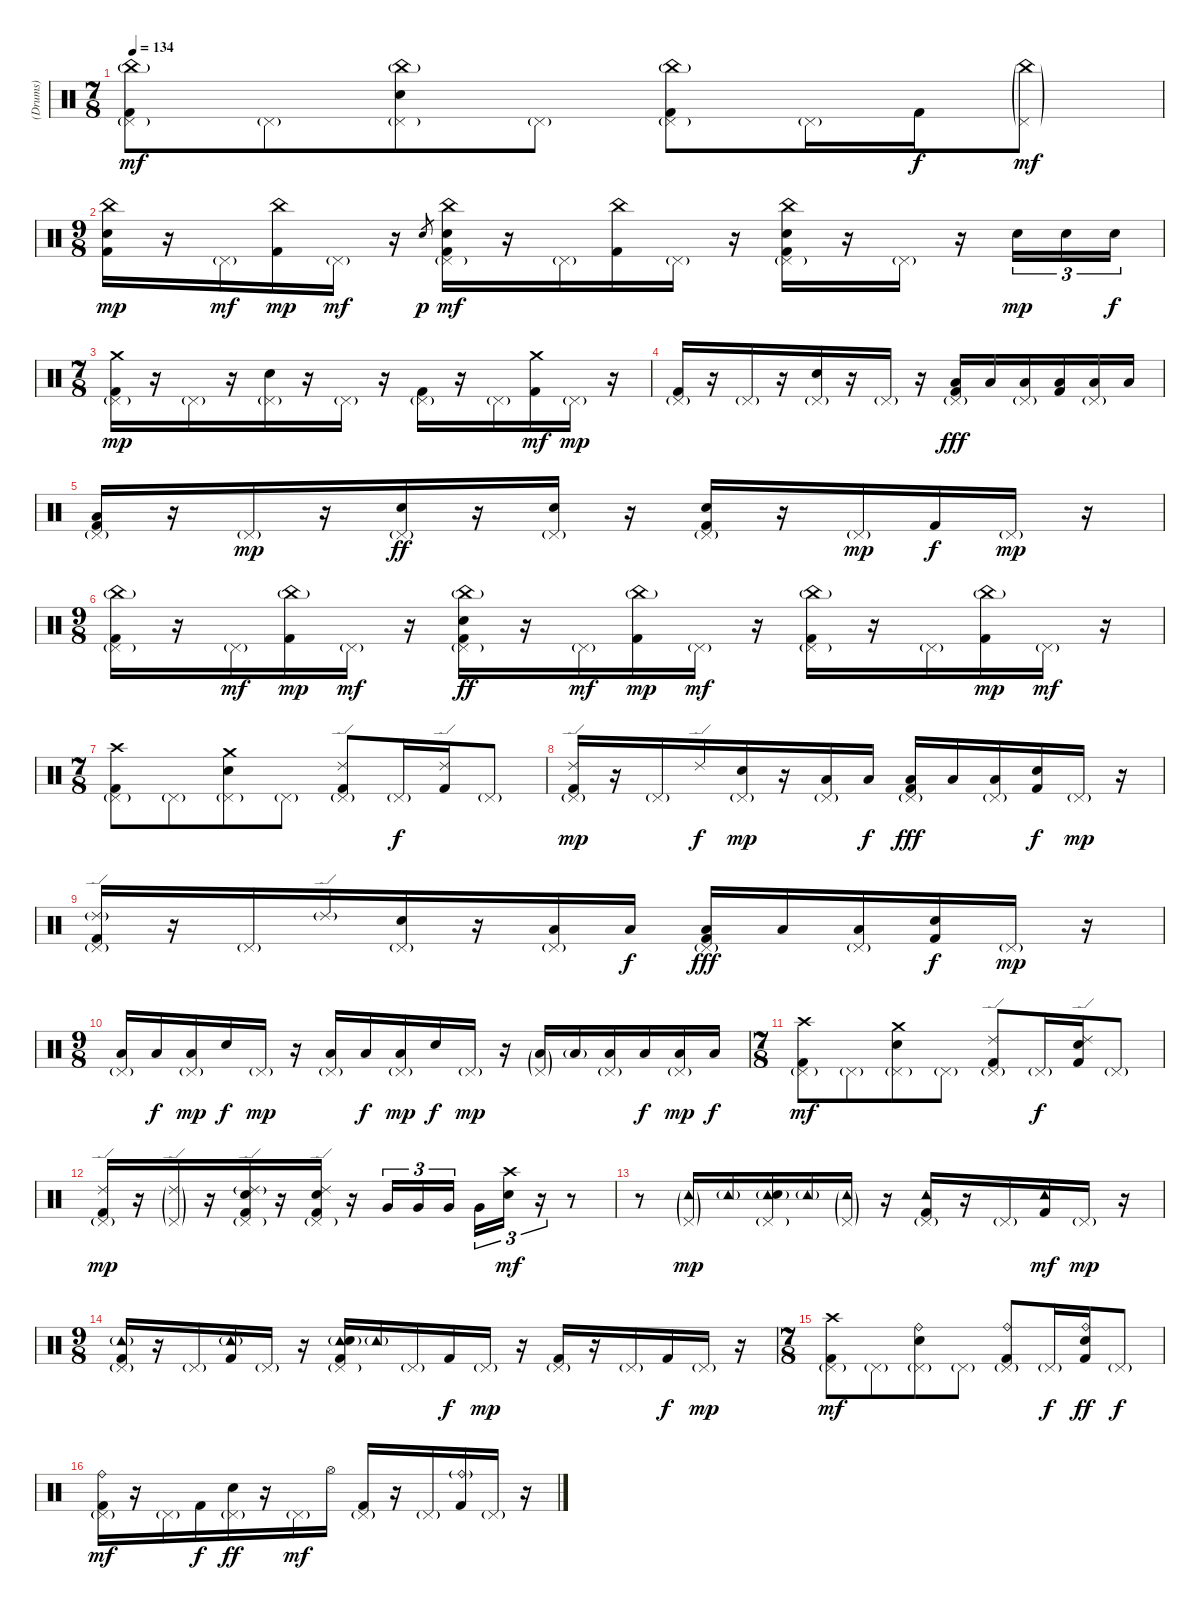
\track ("(Drums)" "(Drums)") {instrument percussion}
\staff {score}
\articulation defaults
\ts (7 8)
\tempo 134
\clef neutral
\ks c
("China (hit)"{g} "Pedal Hi-Hat (hit)"{g} "Kick (hit) 2").8{dy mf} "Pedal Hi-Hat (hit)"{g}.8 ("China (hit)"{g} "Pedal Hi-Hat (hit)"{g} "Electric Snare (hit)").8 "Pedal Hi-Hat (hit)"{g}.8 ("China (hit)"{g} "Pedal Hi-Hat (hit)"{g} "Kick (hit) 2").8 "Pedal Hi-Hat (hit)"{g}.16 "Kick (hit) 2".16{dy f} ("China (hit)"{g} "Pedal Hi-Hat (hit)"{g}).8{dy mf} |
\ts (9 8)
("China (hit)" "Electric Snare (hit)" "Kick (hit) 2").16{dy mp} r.16 "Pedal Hi-Hat (hit)"{g}.16{dy mf} ("China (hit)" "Kick (hit) 2").16{dy mp} "Pedal Hi-Hat (hit)"{g}.16{dy mf} r.16 "Electric Snare (hit)".8{gr dy p} ("China (hit)" "Pedal Hi-Hat (hit)"{g} "Electric Snare (hit)" "Kick (hit) 2").16{dy mf} r.16 "Pedal Hi-Hat (hit)"{g}.16 ("China (hit)" "Kick (hit) 2").16 "Pedal Hi-Hat (hit)"{g}.16 r.16 ("China (hit)" "Pedal Hi-Hat (hit)"{g} "Electric Snare (hit)" "Kick (hit) 2").16 r.16 "Pedal Hi-Hat (hit)"{g}.16 r.16 "Electric Snare (hit)".16{tu (3 2) dy mp} "Electric Snare (hit)".16{tu (3 2)} "Electric Snare (hit)".16{tu (3 2) dy f} |
\ts (7 8)
("Crash medium (hit)" "Pedal Hi-Hat (hit)"{g} "Kick (hit) 2").16{dy mp} r.16 "Pedal Hi-Hat (hit)"{g}.16 r.16 ("Pedal Hi-Hat (hit)"{g} "Electric Snare (hit)").16 r.16 "Pedal Hi-Hat (hit)"{g}.16 r.16 ("Pedal Hi-Hat (hit)"{g} "Kick (hit) 2").16 r.16 "Pedal Hi-Hat (hit)"{g}.16 ("Crash medium (hit)" "Kick (hit) 2").16{dy mf} "Pedal Hi-Hat (hit)"{g}.16{dy mp} r.16 |
("Pedal Hi-Hat (hit)"{g} "Kick (hit) 2").16 r.16 "Pedal Hi-Hat (hit)"{g}.16 r.16 ("Pedal Hi-Hat (hit)"{g} "Electric Snare (hit)").16 r.16 "Pedal Hi-Hat (hit)"{g}.16 r.16 ("Pedal Hi-Hat (hit)"{g} "Low Tom (hit)" "Kick (hit) 2").16{dy fff} "Low Tom (hit)".16 ("Pedal Hi-Hat (hit)"{g} "Low Tom (hit)").16 ("Low Tom (hit)" "Kick (hit) 2").16 ("Pedal Hi-Hat (hit)"{g} "Low Tom (hit)").16 "Low Tom (hit)".16 |
("Pedal Hi-Hat (hit)"{g} "Low Tom (hit)" "Kick (hit) 2").16 r.16 "Pedal Hi-Hat (hit)"{g}.16{dy mp} r.16 ("Pedal Hi-Hat (hit)"{g} "Electric Snare (hit)").16{dy ff} r.16 ("Pedal Hi-Hat (hit)"{g} "Electric Snare (hit)").16 r.16 ("Pedal Hi-Hat (hit)"{g} "Electric Snare (hit)" "Kick (hit) 2").16 r.16 "Pedal Hi-Hat (hit)"{g}.16{dy mp} "Kick (hit) 2".16{dy f} "Pedal Hi-Hat (hit)"{g}.16{dy mp} r.16 |
\ts (9 8)
("China (hit)"{g} "Pedal Hi-Hat (hit)"{g} "Kick (hit) 2").16 r.16 "Pedal Hi-Hat (hit)"{g}.16{dy mf} ("China (hit)"{g} "Kick (hit) 2").16{dy mp} "Pedal Hi-Hat (hit)"{g}.16{dy mf} r.16 ("China (hit)"{g} "Pedal Hi-Hat (hit)"{g} "Electric Snare (hit)" "Kick (hit) 2").16{dy ff} r.16 "Pedal Hi-Hat (hit)"{g}.16{dy mf} ("China (hit)"{g} "Kick (hit) 2").16{dy mp} "Pedal Hi-Hat (hit)"{g}.16{dy mf} r.16 ("China (hit)"{g} "Pedal Hi-Hat (hit)"{g} "Kick (hit) 2").16 r.16 "Pedal Hi-Hat (hit)"{g}.16 ("China (hit)"{g} "Kick (hit) 2").16{dy mp} "Pedal Hi-Hat (hit)"{g}.16{dy mf} r.16 |
\ts (7 8)
("Crash high (hit)" "Pedal Hi-Hat (hit)"{g} "Kick (hit) 2").8 "Pedal Hi-Hat (hit)"{g}.8 ("Crash medium (hit)" "Pedal Hi-Hat (hit)"{g} "Electric Snare (hit)").8 "Pedal Hi-Hat (hit)"{g}.8 ("Ride (edge) 2" "Pedal Hi-Hat (hit)"{g} "Kick (hit) 2").8 "Pedal Hi-Hat (hit)"{g}.16{dy f} ("Ride (edge) 2" "Kick (hit) 2").16 "Pedal Hi-Hat (hit)"{g}.8 |
("Ride (edge) 2" "Pedal Hi-Hat (hit)"{g} "Kick (hit) 2").16{dy mp} r.16 "Pedal Hi-Hat (hit)"{g}.16 "Ride (edge) 2".16{dy f} ("Pedal Hi-Hat (hit)"{g} "Electric Snare (hit)").16{dy mp} r.16 ("Pedal Hi-Hat (hit)"{g} "Low Tom (hit)").16 "Low Tom (hit)".16{dy f} ("Pedal Hi-Hat (hit)"{g} "Low Tom (hit)" "Kick (hit) 2").16{dy fff} "Low Tom (hit)".16 ("Pedal Hi-Hat (hit)"{g} "Low Tom (hit)").16 ("Electric Snare (hit)" "Kick (hit) 2").16{dy f} "Pedal Hi-Hat (hit)"{g}.16{dy mp} r.16 |
("Ride (edge) 2"{g} "Pedal Hi-Hat (hit)"{g} "Kick (hit) 2").16 r.16 "Pedal Hi-Hat (hit)"{g}.16 "Ride (edge) 2"{g}.16 ("Pedal Hi-Hat (hit)"{g} "Electric Snare (hit)").16 r.16 ("Pedal Hi-Hat (hit)"{g} "Low Tom (hit)").16 "Low Tom (hit)".16{dy f} ("Pedal Hi-Hat (hit)"{g} "Low Tom (hit)" "Kick (hit) 2").16{dy fff} "Low Tom (hit)".16 ("Pedal Hi-Hat (hit)"{g} "Low Tom (hit)").16 ("Electric Snare (hit)" "Kick (hit) 2").16{dy f} "Pedal Hi-Hat (hit)"{g}.16{dy mp} r.16 |
\ts (9 8)
("Pedal Hi-Hat (hit)"{g} "Low Tom (hit)").16 "Low Tom (hit)".16{dy f} ("Pedal Hi-Hat (hit)"{g} "Low Tom (hit)").16{dy mp} "Electric Snare (hit)".16{dy f} "Pedal Hi-Hat (hit)"{g}.16{dy mp} r.16 ("Pedal Hi-Hat (hit)"{g} "Low Tom (hit)").16 "Low Tom (hit)".16{dy f} ("Pedal Hi-Hat (hit)"{g} "Low Tom (hit)").16{dy mp} "Electric Snare (hit)".16{dy f} "Pedal Hi-Hat (hit)"{g}.16{dy mp} r.16 ("Pedal Hi-Hat (hit)"{g} "Low Tom (hit)"{g}).16 "Low Tom (hit)"{g}.16 ("Pedal Hi-Hat (hit)"{g} "Low Tom (hit)").16 "Low Tom (hit)".16{dy f} ("Pedal Hi-Hat (hit)"{g} "Low Tom (hit)").16{dy mp} "Low Tom (hit)".16{dy f} |
\ts (7 8)
("Crash high (hit)" "Pedal Hi-Hat (hit)"{g} "Kick (hit) 2").8{dy mf} "Pedal Hi-Hat (hit)"{g}.8 ("Crash medium (hit)" "Pedal Hi-Hat (hit)"{g} "Electric Snare (hit)").8 "Pedal Hi-Hat (hit)"{g}.8 ("Ride (edge) 2" "Pedal Hi-Hat (hit)"{g} "Kick (hit) 2").8 "Pedal Hi-Hat (hit)"{g}.16{dy f} ("Ride (edge) 2" "Electric Snare (hit)" "Kick (hit) 2").16 "Pedal Hi-Hat (hit)"{g}.8 |
("Ride (edge) 2" "Pedal Hi-Hat (hit)"{g} "Kick (hit) 2").16{dy mp} r.16 ("Ride (edge) 2"{g} "Pedal Hi-Hat (hit)"{g}).16 r.16 ("Ride (edge) 2"{g} "Pedal Hi-Hat (hit)"{g} "Electric Snare (hit)" "Kick (hit) 2").16 r.16 ("Ride (edge) 2" "Pedal Hi-Hat (hit)"{g} "Electric Snare (hit)" "Kick (hit) 2").16 r.16 "Very Low Tom (hit)".16{tu (3 2)} "Very Low Tom (hit)".16{tu (3 2)} "Very Low Tom (hit)".16{tu (3 2)} "Very Low Tom (hit)".16{tu (3 2)} ("Crash high (hit)" "Electric Snare (hit)").16{tu (3 2) dy mf} r.16{tu (3 2)} r.8 |
r.8 ("Tambourine (hit)"{g} "Pedal Hi-Hat (hit)"{g}).16{dy mp} "Tambourine (hit)"{g}.16 ("Tambourine (hit)"{g} "Pedal Hi-Hat (hit)"{g} "Electric Snare (hit)").16 "Tambourine (hit)"{g}.16 ("Tambourine (hit)"{g} "Pedal Hi-Hat (hit)"{g}).16 r.16 ("Tambourine (hit)" "Pedal Hi-Hat (hit)"{g} "Kick (hit) 2").16 r.16 "Pedal Hi-Hat (hit)"{g}.16 ("Tambourine (hit)" "Kick (hit) 2").16{dy mf} "Pedal Hi-Hat (hit)"{g}.16{dy mp} r.16 |
\ts (9 8)
("Tambourine (hit)"{g} "Pedal Hi-Hat (hit)"{g} "Kick (hit) 2").16 r.16 "Pedal Hi-Hat (hit)"{g}.16 ("Tambourine (hit)"{g} "Kick (hit) 2").16 "Pedal Hi-Hat (hit)"{g}.16 r.16 ("Tambourine (hit)"{g} "Pedal Hi-Hat (hit)"{g} "Electric Snare (hit)" "Kick (hit) 2").16 "Tambourine (hit)"{g}.16 "Pedal Hi-Hat (hit)"{g}.16 "Kick (hit) 2".16{dy f} "Pedal Hi-Hat (hit)"{g}.16{dy mp} r.16 ("Pedal Hi-Hat (hit)"{g} "Kick (hit) 2").16 r.16 "Pedal Hi-Hat (hit)"{g}.16 "Kick (hit) 2".16{dy f} "Pedal Hi-Hat (hit)"{g}.16{dy mp} r.16 |
\ts (7 8)
("Crash high (hit)" "Pedal Hi-Hat (hit)"{g} "Kick (hit) 2").8{dy mf} "Pedal Hi-Hat (hit)"{g}.8 ("Ride (bell)" "Pedal Hi-Hat (hit)"{g} "Electric Snare (hit)").8 "Pedal Hi-Hat (hit)"{g}.8 ("Ride (bell)" "Pedal Hi-Hat (hit)"{g} "Kick (hit) 2").8 "Pedal Hi-Hat (hit)"{g}.16{dy f} ("Ride (bell)" "Electric Snare (hit)" "Kick (hit) 2").16{dy ff} "Pedal Hi-Hat (hit)"{g}.8{dy f} |
("Ride (bell)" "Pedal Hi-Hat (hit)"{g} "Kick (hit) 2").16{dy mf} r.16 "Pedal Hi-Hat (hit)"{g}.16 "Kick (hit) 2".16{dy f} ("Pedal Hi-Hat (hit)"{g} "Electric Snare (hit)").16{dy ff} r.16 "Pedal Hi-Hat (hit)"{g}.16{dy mf} "Hi-Hat (open)".16 ("Pedal Hi-Hat (hit)"{g} "Kick (hit) 2").16 r.16 "Pedal Hi-Hat (hit)"{g}.16 ("Ride (bell)"{g} "Kick (hit) 2").16 "Pedal Hi-Hat (hit)"{g}.16 r.16
